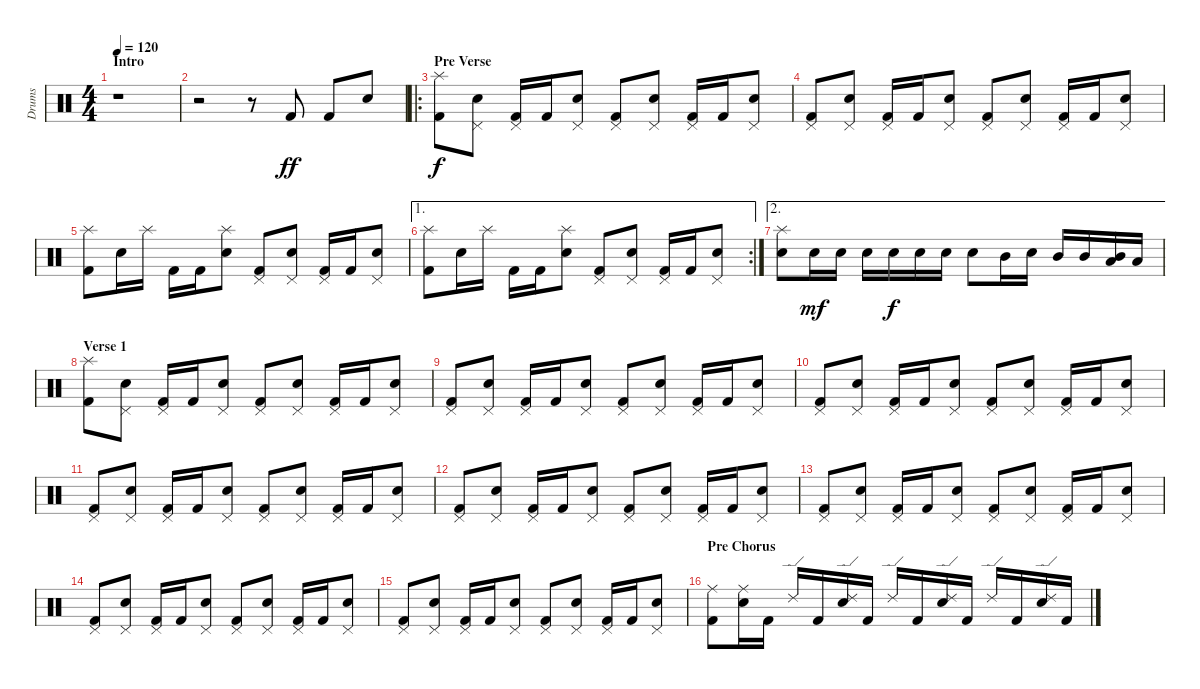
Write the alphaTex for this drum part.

\track ("Drums" "Drums") {instrument percussion}
\staff {score}
\articulation defaults
\ts (4 4)
\section ("" "Intro")
\tempo 120
\clef neutral
\ks c
r.1{dy ff} |
r.2 r.8 "Kick (hit) 2".8 "Kick (hit) 2".8 "Electric Snare (hit)".8 |
\ro
\section ("" "Pre Verse")
("Splash (hit)" "Kick (hit) 2").8{dy f} ("Pedal Hi-Hat (hit)" "Electric Snare (hit)").8 ("Pedal Hi-Hat (hit)" "Kick (hit) 2").16 "Kick (hit) 2".16 ("Pedal Hi-Hat (hit)" "Electric Snare (hit)").8 ("Pedal Hi-Hat (hit)" "Kick (hit) 2").8 ("Pedal Hi-Hat (hit)" "Electric Snare (hit)").8 ("Pedal Hi-Hat (hit)" "Kick (hit) 2").16 "Kick (hit) 2".16 ("Pedal Hi-Hat (hit)" "Electric Snare (hit)").8 |
("Pedal Hi-Hat (hit)" "Kick (hit) 2").8 ("Pedal Hi-Hat (hit)" "Electric Snare (hit)").8 ("Pedal Hi-Hat (hit)" "Kick (hit) 2").16 "Kick (hit) 2".16 ("Pedal Hi-Hat (hit)" "Electric Snare (hit)").8 ("Pedal Hi-Hat (hit)" "Kick (hit) 2").8 ("Pedal Hi-Hat (hit)" "Electric Snare (hit)").8 ("Pedal Hi-Hat (hit)" "Kick (hit) 2").16 "Kick (hit) 2".16 ("Pedal Hi-Hat (hit)" "Electric Snare (hit)").8 |
("Splash (hit)" "Kick (hit) 2").8 "Electric Snare (hit)".16 "Splash (hit)".16 "Kick (hit) 2".16 "Kick (hit) 2".16 ("Splash (hit)" "Electric Snare (hit)").8 ("Pedal Hi-Hat (hit)" "Kick (hit) 2").8 ("Pedal Hi-Hat (hit)" "Electric Snare (hit)").8 ("Pedal Hi-Hat (hit)" "Kick (hit) 2").16 "Kick (hit) 2".16 ("Pedal Hi-Hat (hit)" "Electric Snare (hit)").8 |
\ae 1
\rc 2
("Splash (hit)" "Kick (hit) 2").8 "Electric Snare (hit)".16 "Splash (hit)".16 "Kick (hit) 2".16 "Kick (hit) 2".16 ("Splash (hit)" "Electric Snare (hit)").8 ("Pedal Hi-Hat (hit)" "Kick (hit) 2").8 ("Pedal Hi-Hat (hit)" "Electric Snare (hit)").8 ("Pedal Hi-Hat (hit)" "Kick (hit) 2").16 "Kick (hit) 2".16 ("Pedal Hi-Hat (hit)" "Electric Snare (hit)").8 |
\ae 2
("Splash (hit)" "Electric Snare (hit)").8 "Electric Snare (hit)".16{dy mf} "Electric Snare (hit)".16 "Electric Snare (hit)".16 "Electric Snare (hit)".16{dy f} "Electric Snare (hit)".16 "Electric Snare (hit)".16 "Electric Snare (hit)".8 "Mid Tom (hit)".16 "Electric Snare (hit)".16 "Mid Tom (hit)".16 "Mid Tom (hit)".16 ("Mid Tom (hit)" "Low Tom (hit)").16 "Low Tom (hit)".16 |
\section ("" "Verse 1")
("Splash (hit)" "Kick (hit) 2").8 ("Pedal Hi-Hat (hit)" "Electric Snare (hit)").8 ("Pedal Hi-Hat (hit)" "Kick (hit) 2").16 "Kick (hit) 2".16 ("Pedal Hi-Hat (hit)" "Electric Snare (hit)").8 ("Pedal Hi-Hat (hit)" "Kick (hit) 2").8 ("Pedal Hi-Hat (hit)" "Electric Snare (hit)").8 ("Pedal Hi-Hat (hit)" "Kick (hit) 2").16 "Kick (hit) 2".16 ("Pedal Hi-Hat (hit)" "Electric Snare (hit)").8 |
("Pedal Hi-Hat (hit)" "Kick (hit) 2").8 ("Pedal Hi-Hat (hit)" "Electric Snare (hit)").8 ("Pedal Hi-Hat (hit)" "Kick (hit) 2").16 "Kick (hit) 2".16 ("Pedal Hi-Hat (hit)" "Electric Snare (hit)").8 ("Pedal Hi-Hat (hit)" "Kick (hit) 2").8 ("Pedal Hi-Hat (hit)" "Electric Snare (hit)").8 ("Pedal Hi-Hat (hit)" "Kick (hit) 2").16 "Kick (hit) 2".16 ("Pedal Hi-Hat (hit)" "Electric Snare (hit)").8 |
("Pedal Hi-Hat (hit)" "Kick (hit) 2").8 ("Pedal Hi-Hat (hit)" "Electric Snare (hit)").8 ("Pedal Hi-Hat (hit)" "Kick (hit) 2").16 "Kick (hit) 2".16 ("Pedal Hi-Hat (hit)" "Electric Snare (hit)").8 ("Pedal Hi-Hat (hit)" "Kick (hit) 2").8 ("Pedal Hi-Hat (hit)" "Electric Snare (hit)").8 ("Pedal Hi-Hat (hit)" "Kick (hit) 2").16 "Kick (hit) 2".16 ("Pedal Hi-Hat (hit)" "Electric Snare (hit)").8 |
("Pedal Hi-Hat (hit)" "Kick (hit) 2").8 ("Pedal Hi-Hat (hit)" "Electric Snare (hit)").8 ("Pedal Hi-Hat (hit)" "Kick (hit) 2").16 "Kick (hit) 2".16 ("Pedal Hi-Hat (hit)" "Electric Snare (hit)").8 ("Pedal Hi-Hat (hit)" "Kick (hit) 2").8 ("Pedal Hi-Hat (hit)" "Electric Snare (hit)").8 ("Pedal Hi-Hat (hit)" "Kick (hit) 2").16 "Kick (hit) 2".16 ("Pedal Hi-Hat (hit)" "Electric Snare (hit)").8 |
("Pedal Hi-Hat (hit)" "Kick (hit) 2").8 ("Pedal Hi-Hat (hit)" "Electric Snare (hit)").8 ("Pedal Hi-Hat (hit)" "Kick (hit) 2").16 "Kick (hit) 2".16 ("Pedal Hi-Hat (hit)" "Electric Snare (hit)").8 ("Pedal Hi-Hat (hit)" "Kick (hit) 2").8 ("Pedal Hi-Hat (hit)" "Electric Snare (hit)").8 ("Pedal Hi-Hat (hit)" "Kick (hit) 2").16 "Kick (hit) 2".16 ("Pedal Hi-Hat (hit)" "Electric Snare (hit)").8 |
("Pedal Hi-Hat (hit)" "Kick (hit) 2").8 ("Pedal Hi-Hat (hit)" "Electric Snare (hit)").8 ("Pedal Hi-Hat (hit)" "Kick (hit) 2").16 "Kick (hit) 2".16 ("Pedal Hi-Hat (hit)" "Electric Snare (hit)").8 ("Pedal Hi-Hat (hit)" "Kick (hit) 2").8 ("Pedal Hi-Hat (hit)" "Electric Snare (hit)").8 ("Pedal Hi-Hat (hit)" "Kick (hit) 2").16 "Kick (hit) 2".16 ("Pedal Hi-Hat (hit)" "Electric Snare (hit)").8 |
("Pedal Hi-Hat (hit)" "Kick (hit) 2").8 ("Pedal Hi-Hat (hit)" "Electric Snare (hit)").8 ("Pedal Hi-Hat (hit)" "Kick (hit) 2").16 "Kick (hit) 2".16 ("Pedal Hi-Hat (hit)" "Electric Snare (hit)").8 ("Pedal Hi-Hat (hit)" "Kick (hit) 2").8 ("Pedal Hi-Hat (hit)" "Electric Snare (hit)").8 ("Pedal Hi-Hat (hit)" "Kick (hit) 2").16 "Kick (hit) 2".16 ("Pedal Hi-Hat (hit)" "Electric Snare (hit)").8 |
("Pedal Hi-Hat (hit)" "Kick (hit) 2").8 ("Pedal Hi-Hat (hit)" "Electric Snare (hit)").8 ("Pedal Hi-Hat (hit)" "Kick (hit) 2").16 "Kick (hit) 2".16 ("Pedal Hi-Hat (hit)" "Electric Snare (hit)").8 ("Pedal Hi-Hat (hit)" "Kick (hit) 2").8 ("Pedal Hi-Hat (hit)" "Electric Snare (hit)").8 ("Pedal Hi-Hat (hit)" "Kick (hit) 2").16 "Kick (hit) 2".16 ("Pedal Hi-Hat (hit)" "Electric Snare (hit)").8 |
\section ("" "Pre Chorus")
("Ride (middle)" "Kick (hit) 2").8 ("Ride (middle)" "Electric Snare (hit)").16 "Kick (hit) 2".16 "Ride (edge) 2".16 "Kick (hit) 2".16 ("Ride (edge) 2" "Electric Snare (hit)").16 "Kick (hit) 2".16 "Ride (edge) 2".16 "Kick (hit) 2".16 ("Ride (edge) 2" "Electric Snare (hit)").16 "Kick (hit) 2".16 "Ride (edge) 2".16 "Kick (hit) 2".16 ("Ride (edge) 2" "Electric Snare (hit)").16 "Kick (hit) 2".16
